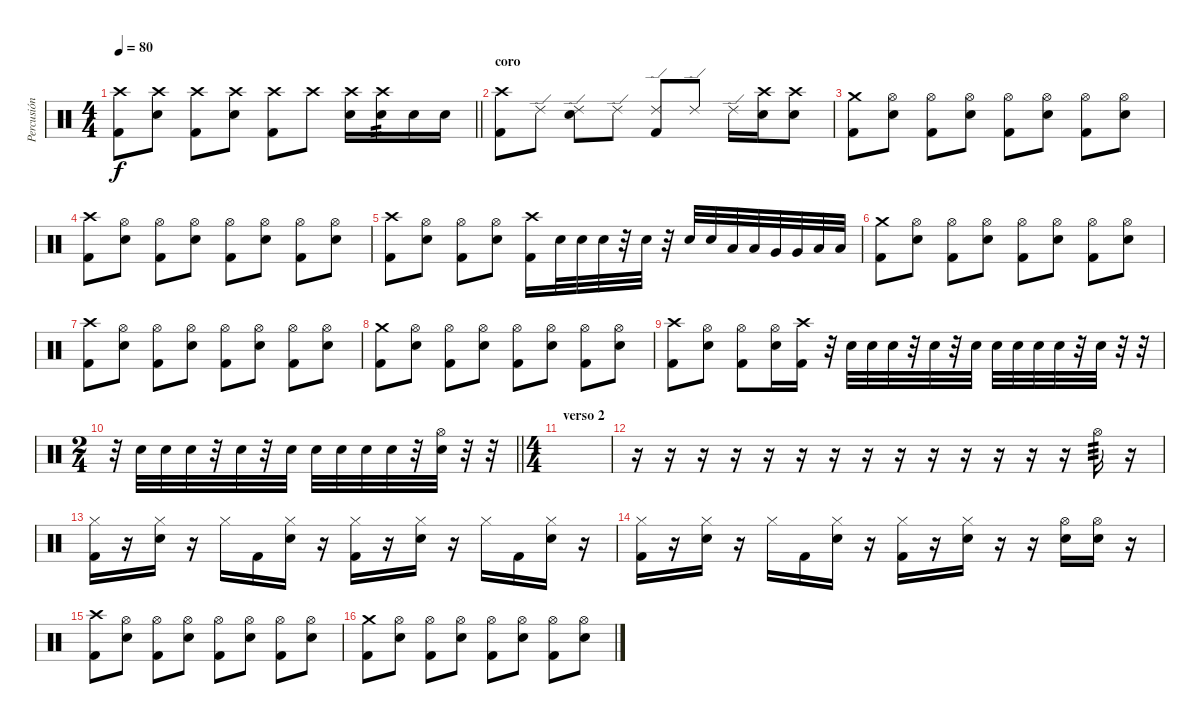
\track ("Percusión" "Percusión") {instrument percussion}
\staff {score}
\articulation defaults
\ts (4 4)
\tempo 80
\clef neutral
\barLineRight lightlight
\ks c
("Crash high (hit)" "Kick (hit) 2").8{dy f} ("Crash high (hit)" "Electric Snare (hit)").8 ("Crash high (hit)" "Kick (hit) 2").8 ("Crash high (hit)" "Electric Snare (hit)").8 ("Crash high (hit)" "Kick (hit) 2").8 "Crash high (hit)".8 ("Crash high (hit)" "Electric Snare (hit)").16 ("Crash high (hit)" "Electric Snare (hit)").16{tp 2} "Electric Snare (hit)".16 "Electric Snare (hit)".16 |
\section ("" "coro")
("Crash high (hit)" "Kick (hit) 2").8 "Ride (edge) 2".8 ("Ride (edge) 2" "Electric Snare (hit)").8 "Ride (edge) 2".8 ("Ride (edge) 2" "Kick (hit) 2").8 "Ride (edge) 2".8 "Ride (edge) 2".16 ("Crash high (hit)" "Electric Snare (hit)").16 ("Crash high (hit)" "Electric Snare (hit)").8 |
("Crash medium (hit)" "Kick (hit) 2").8 ("Hi-Hat (open)" "Electric Snare (hit)").8 ("Hi-Hat (open)" "Kick (hit) 2").8 ("Hi-Hat (open)" "Electric Snare (hit)").8 ("Hi-Hat (open)" "Kick (hit) 2").8 ("Hi-Hat (open)" "Electric Snare (hit)").8 ("Hi-Hat (open)" "Kick (hit) 2").8 ("Hi-Hat (open)" "Electric Snare (hit)").8 |
("Crash high (hit)" "Kick (hit) 2").8 ("Hi-Hat (open)" "Electric Snare (hit)").8 ("Hi-Hat (open)" "Kick (hit) 2").8 ("Hi-Hat (open)" "Electric Snare (hit)").8 ("Hi-Hat (open)" "Kick (hit) 2").8 ("Hi-Hat (open)" "Electric Snare (hit)").8 ("Hi-Hat (open)" "Kick (hit) 2").8 ("Hi-Hat (open)" "Electric Snare (hit)").8 |
("Crash high (hit)" "Kick (hit) 2").8 ("Hi-Hat (open)" "Electric Snare (hit)").8 ("Hi-Hat (open)" "Kick (hit) 2").8 ("Hi-Hat (open)" "Electric Snare (hit)").8 ("Crash high (hit)" "Kick (hit) 2").16 "Electric Snare (hit)".32 "Electric Snare (hit)".32 "Electric Snare (hit)".32 r.32 "Electric Snare (hit)".32 r.32 "Electric Snare (hit)".32 "Electric Snare (hit)".32 "Low Tom (hit)".32 "Low Tom (hit)".32 "Very Low Tom (hit)".32 "Very Low Tom (hit)".32 "Low Floor Tom (hit)".32 "Low Floor Tom (hit)".32 |
("Crash medium (hit)" "Kick (hit) 2").8 ("Hi-Hat (open)" "Electric Snare (hit)").8 ("Hi-Hat (open)" "Kick (hit) 2").8 ("Hi-Hat (open)" "Electric Snare (hit)").8 ("Hi-Hat (open)" "Kick (hit) 2").8 ("Hi-Hat (open)" "Electric Snare (hit)").8 ("Hi-Hat (open)" "Kick (hit) 2").8 ("Hi-Hat (open)" "Electric Snare (hit)").8 |
("Crash high (hit)" "Kick (hit) 2").8 ("Hi-Hat (open)" "Electric Snare (hit)").8 ("Hi-Hat (open)" "Kick (hit) 2").8 ("Hi-Hat (open)" "Electric Snare (hit)").8 ("Hi-Hat (open)" "Kick (hit) 2").8 ("Hi-Hat (open)" "Electric Snare (hit)").8 ("Hi-Hat (open)" "Kick (hit) 2").8 ("Hi-Hat (open)" "Electric Snare (hit)").8 |
("Crash medium (hit)" "Kick (hit) 2").8 ("Hi-Hat (open)" "Electric Snare (hit)").8 ("Hi-Hat (open)" "Kick (hit) 2").8 ("Hi-Hat (open)" "Electric Snare (hit)").8 ("Hi-Hat (open)" "Kick (hit) 2").8 ("Hi-Hat (open)" "Electric Snare (hit)").8 ("Hi-Hat (open)" "Kick (hit) 2").8 ("Hi-Hat (open)" "Electric Snare (hit)").8 |
("Crash high (hit)" "Kick (hit) 2").8 ("Hi-Hat (open)" "Electric Snare (hit)").8 ("Hi-Hat (open)" "Kick (hit) 2").8 ("Hi-Hat (open)" "Electric Snare (hit)").16 ("Crash high (hit)" "Kick (hit) 2").16 r.32 "Electric Snare (hit)".32 "Electric Snare (hit)".32 "Electric Snare (hit)".32 r.32 "Electric Snare (hit)".32 r.32 "Electric Snare (hit)".32 "Electric Snare (hit)".32 "Electric Snare (hit)".32 "Electric Snare (hit)".32 "Electric Snare (hit)".32 r.32 "Electric Snare (hit)".32 r.32 r.32 |
\ts (2 4)
\barLineRight lightlight
r.32 "Electric Snare (hit)".32 "Electric Snare (hit)".32 "Electric Snare (hit)".32 r.32 "Electric Snare (hit)".32 r.32 "Electric Snare (hit)".32 "Electric Snare (hit)".32 "Electric Snare (hit)".32 "Electric Snare (hit)".32 "Electric Snare (hit)".32 r.32 ("Hi-Hat (open)" "Electric Snare (hit)").32 r.32 r.32 |
\ts (4 4)
\section ("" "verso 2")
|
r.16 r.16 r.16 r.16 r.16 r.16 r.16 r.16 r.16 r.16 r.16 r.16 r.16 r.16 "Hi-Hat (open)".16{tp 3} r.16 |
("Hi-Hat (closed)" "Kick (hit) 2").16 r.16 ("Hi-Hat (closed)" "Electric Snare (hit)").16 r.16 "Hi-Hat (closed)".16 "Kick (hit) 2".16 ("Hi-Hat (closed)" "Electric Snare (hit)").16 r.16 ("Hi-Hat (closed)" "Kick (hit) 2").16 r.16 ("Hi-Hat (closed)" "Electric Snare (hit)").16 r.16 "Hi-Hat (closed)".16 "Kick (hit) 2".16 ("Hi-Hat (closed)" "Electric Snare (hit)").16 r.16 |
("Hi-Hat (closed)" "Kick (hit) 2").16 r.16 ("Hi-Hat (closed)" "Electric Snare (hit)").16 r.16 "Hi-Hat (closed)".16 "Kick (hit) 2".16 ("Hi-Hat (closed)" "Electric Snare (hit)").16 r.16 ("Hi-Hat (closed)" "Kick (hit) 2").16 r.16 ("Hi-Hat (closed)" "Electric Snare (hit)").16 r.16 r.16 ("Hi-Hat (open)" "Electric Snare (hit)").16 ("Hi-Hat (open)" "Electric Snare (hit)").16 r.16 |
("Crash high (hit)" "Kick (hit) 2").8 ("Hi-Hat (open)" "Electric Snare (hit)").8 ("Hi-Hat (open)" "Kick (hit) 2").8 ("Hi-Hat (open)" "Electric Snare (hit)").8 ("Hi-Hat (open)" "Kick (hit) 2").8 ("Hi-Hat (open)" "Electric Snare (hit)").8 ("Hi-Hat (open)" "Kick (hit) 2").8 ("Hi-Hat (open)" "Electric Snare (hit)").8 |
("Crash medium (hit)" "Kick (hit) 2").8 ("Hi-Hat (open)" "Electric Snare (hit)").8 ("Hi-Hat (open)" "Kick (hit) 2").8 ("Hi-Hat (open)" "Electric Snare (hit)").8 ("Hi-Hat (open)" "Kick (hit) 2").8 ("Hi-Hat (open)" "Electric Snare (hit)").8 ("Hi-Hat (open)" "Kick (hit) 2").8 ("Hi-Hat (open)" "Electric Snare (hit)").8
